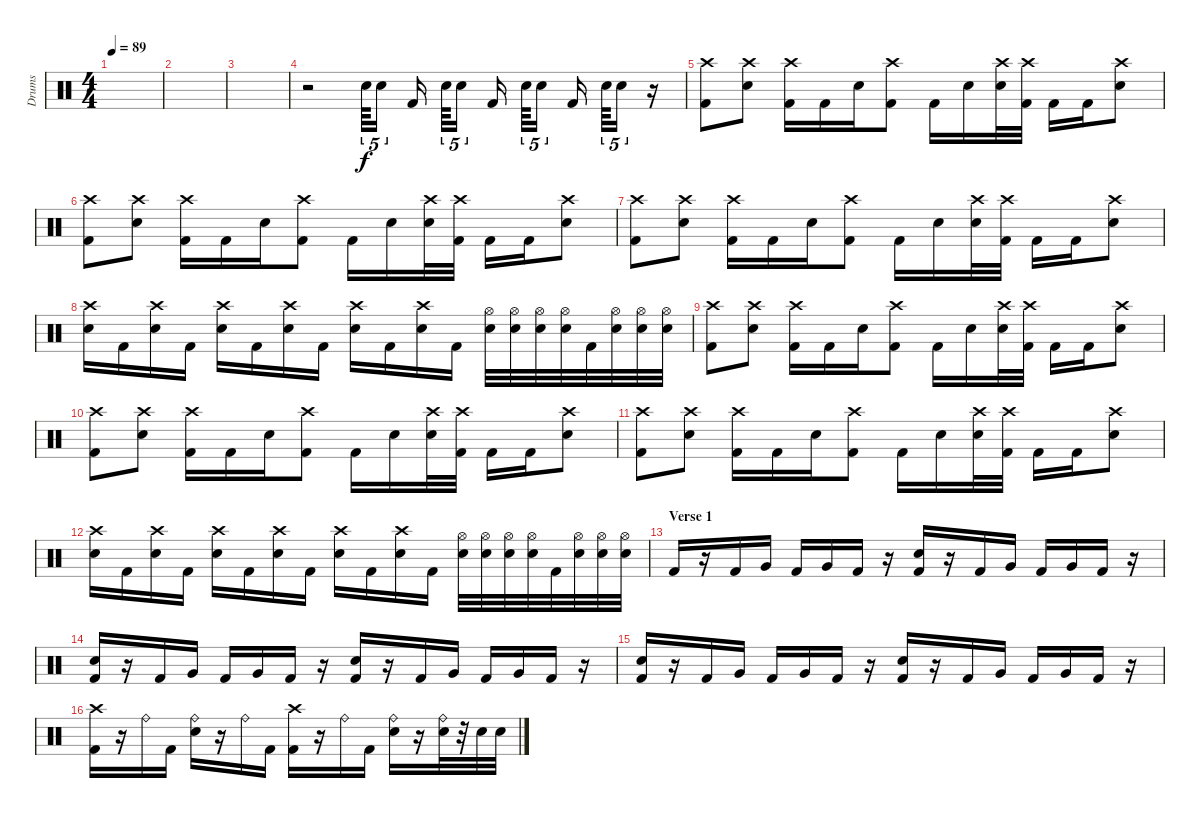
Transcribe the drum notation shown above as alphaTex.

\track ("Drums" "Drums") {instrument percussion}
\staff {score}
\articulation defaults
\ts (4 4)
\tempo 89
\clef neutral
\ks c
|
|
|
r.2 "Snare (hit) 2".64{tu (5 4)} "Electric Snare (hit)".16{tu (5 4)} "Kick (hit) 2".16 "Snare (hit) 2".64{tu (5 4)} "Electric Snare (hit)".16{tu (5 4)} "Kick (hit) 2".16 "Snare (hit) 2".64{tu (5 4)} "Electric Snare (hit)".16{tu (5 4)} "Kick (hit) 2".16 "Snare (hit) 2".64{tu (5 4)} "Electric Snare (hit)".16{tu (5 4)} r.16 |
("Crash high (hit)" "Kick (hit) 2").8 ("Crash high (hit)" "Electric Snare (hit)").8 ("Crash high (hit)" "Kick (hit) 2").16 "Kick (hit) 2".16 "Electric Snare (hit)".16 ("Crash high (hit)" "Kick (hit) 2").8 "Kick (hit) 2".16 "Electric Snare (hit)".16 ("Crash high (hit)" "Electric Snare (hit)").32 ("Crash high (hit)" "Kick (hit) 2").32 "Kick (hit) 2".16 "Kick (hit) 2".16 ("Crash high (hit)" "Electric Snare (hit)").8 |
("Crash high (hit)" "Kick (hit) 2").8 ("Crash high (hit)" "Electric Snare (hit)").8 ("Crash high (hit)" "Kick (hit) 2").16 "Kick (hit) 2".16 "Electric Snare (hit)".16 ("Crash high (hit)" "Kick (hit) 2").8 "Kick (hit) 2".16 "Electric Snare (hit)".16 ("Crash high (hit)" "Electric Snare (hit)").32 ("Crash high (hit)" "Kick (hit) 2").32 "Kick (hit) 2".16 "Kick (hit) 2".16 ("Crash high (hit)" "Electric Snare (hit)").8 |
("Crash high (hit)" "Kick (hit) 2").8 ("Crash high (hit)" "Electric Snare (hit)").8 ("Crash high (hit)" "Kick (hit) 2").16 "Kick (hit) 2".16 "Electric Snare (hit)".16 ("Crash high (hit)" "Kick (hit) 2").8 "Kick (hit) 2".16 "Electric Snare (hit)".16 ("Crash high (hit)" "Electric Snare (hit)").32 ("Crash high (hit)" "Kick (hit) 2").32 "Kick (hit) 2".16 "Kick (hit) 2".16 ("Crash high (hit)" "Electric Snare (hit)").8 |
("Crash high (hit)" "Electric Snare (hit)").16 "Kick (hit) 2".16 ("Crash high (hit)" "Electric Snare (hit)").16 "Kick (hit) 2".16 ("Crash high (hit)" "Electric Snare (hit)").16 "Kick (hit) 2".16 ("Crash high (hit)" "Electric Snare (hit)").16 "Kick (hit) 2".16 ("Crash high (hit)" "Electric Snare (hit)").16 "Kick (hit) 2".16 ("Crash high (hit)" "Electric Snare (hit)").16 "Kick (hit) 2".16 ("Hi-Hat (open)" "Electric Snare (hit)").32 ("Hi-Hat (open)" "Electric Snare (hit)").32 ("Hi-Hat (open)" "Electric Snare (hit)").32 ("Hi-Hat (open)" "Electric Snare (hit)").32 "Kick (hit) 2".32 ("Hi-Hat (open)" "Electric Snare (hit)").32 ("Hi-Hat (open)" "Electric Snare (hit)").32 ("Hi-Hat (open)" "Electric Snare (hit)").32 |
("Crash high (hit)" "Kick (hit) 2").8 ("Crash high (hit)" "Electric Snare (hit)").8 ("Crash high (hit)" "Kick (hit) 2").16 "Kick (hit) 2".16 "Electric Snare (hit)".16 ("Crash high (hit)" "Kick (hit) 2").8 "Kick (hit) 2".16 "Electric Snare (hit)".16 ("Crash high (hit)" "Electric Snare (hit)").32 ("Crash high (hit)" "Kick (hit) 2").32 "Kick (hit) 2".16 "Kick (hit) 2".16 ("Crash high (hit)" "Electric Snare (hit)").8 |
("Crash high (hit)" "Kick (hit) 2").8 ("Crash high (hit)" "Electric Snare (hit)").8 ("Crash high (hit)" "Kick (hit) 2").16 "Kick (hit) 2".16 "Electric Snare (hit)".16 ("Crash high (hit)" "Kick (hit) 2").8 "Kick (hit) 2".16 "Electric Snare (hit)".16 ("Crash high (hit)" "Electric Snare (hit)").32 ("Crash high (hit)" "Kick (hit) 2").32 "Kick (hit) 2".16 "Kick (hit) 2".16 ("Crash high (hit)" "Electric Snare (hit)").8 |
("Crash high (hit)" "Kick (hit) 2").8 ("Crash high (hit)" "Electric Snare (hit)").8 ("Crash high (hit)" "Kick (hit) 2").16 "Kick (hit) 2".16 "Electric Snare (hit)".16 ("Crash high (hit)" "Kick (hit) 2").8 "Kick (hit) 2".16 "Electric Snare (hit)".16 ("Crash high (hit)" "Electric Snare (hit)").32 ("Crash high (hit)" "Kick (hit) 2").32 "Kick (hit) 2".16 "Kick (hit) 2".16 ("Crash high (hit)" "Electric Snare (hit)").8 |
("Crash high (hit)" "Electric Snare (hit)").16 "Kick (hit) 2".16 ("Crash high (hit)" "Electric Snare (hit)").16 "Kick (hit) 2".16 ("Crash high (hit)" "Electric Snare (hit)").16 "Kick (hit) 2".16 ("Crash high (hit)" "Electric Snare (hit)").16 "Kick (hit) 2".16 ("Crash high (hit)" "Electric Snare (hit)").16 "Kick (hit) 2".16 ("Crash high (hit)" "Electric Snare (hit)").16 "Kick (hit) 2".16 ("Hi-Hat (open)" "Electric Snare (hit)").32 ("Hi-Hat (open)" "Electric Snare (hit)").32 ("Hi-Hat (open)" "Electric Snare (hit)").32 ("Hi-Hat (open)" "Electric Snare (hit)").32 "Kick (hit) 2".32 ("Hi-Hat (open)" "Electric Snare (hit)").32 ("Hi-Hat (open)" "Electric Snare (hit)").32 ("Hi-Hat (open)" "Electric Snare (hit)").32 |
\section ("" "Verse 1")
"Kick (hit) 2".16 r.16 "Kick (hit) 2".16 "Very Low Tom (hit)".16 "Kick (hit) 2".16 "Very Low Tom (hit)".16 "Kick (hit) 2".16 r.16 ("Electric Snare (hit)" "Kick (hit) 2").16 r.16 "Kick (hit) 2".16 "Very Low Tom (hit)".16 "Kick (hit) 2".16 "Very Low Tom (hit)".16 "Kick (hit) 2".16 r.16 |
("Electric Snare (hit)" "Kick (hit) 2").16 r.16 "Kick (hit) 2".16 "Very Low Tom (hit)".16 "Kick (hit) 2".16 "Very Low Tom (hit)".16 "Kick (hit) 2".16 r.16 ("Electric Snare (hit)" "Kick (hit) 2").16 r.16 "Kick (hit) 2".16 "Very Low Tom (hit)".16 "Kick (hit) 2".16 "Very Low Tom (hit)".16 "Kick (hit) 2".16 r.16 |
("Electric Snare (hit)" "Kick (hit) 2").16 r.16 "Kick (hit) 2".16 "Very Low Tom (hit)".16 "Kick (hit) 2".16 "Very Low Tom (hit)".16 "Kick (hit) 2".16 r.16 ("Electric Snare (hit)" "Kick (hit) 2").16 r.16 "Kick (hit) 2".16 "Very Low Tom (hit)".16 "Kick (hit) 2".16 "Very Low Tom (hit)".16 "Kick (hit) 2".16 r.16 |
("Crash high (hit)" "Kick (hit) 2").16 r.16 "Ride (bell)".16 "Kick (hit) 2".16 ("Ride (bell)" "Electric Snare (hit)").16 r.16 "Ride (bell)".16 "Kick (hit) 2".16 ("Crash high (hit)" "Kick (hit) 2").16 r.16 "Ride (bell)".16 "Kick (hit) 2".16 ("Ride (bell)" "Electric Snare (hit)").16 r.16 ("Ride (bell)" "Electric Snare (hit)").32 r.32 "Electric Snare (hit)".32 "Electric Snare (hit)".32
